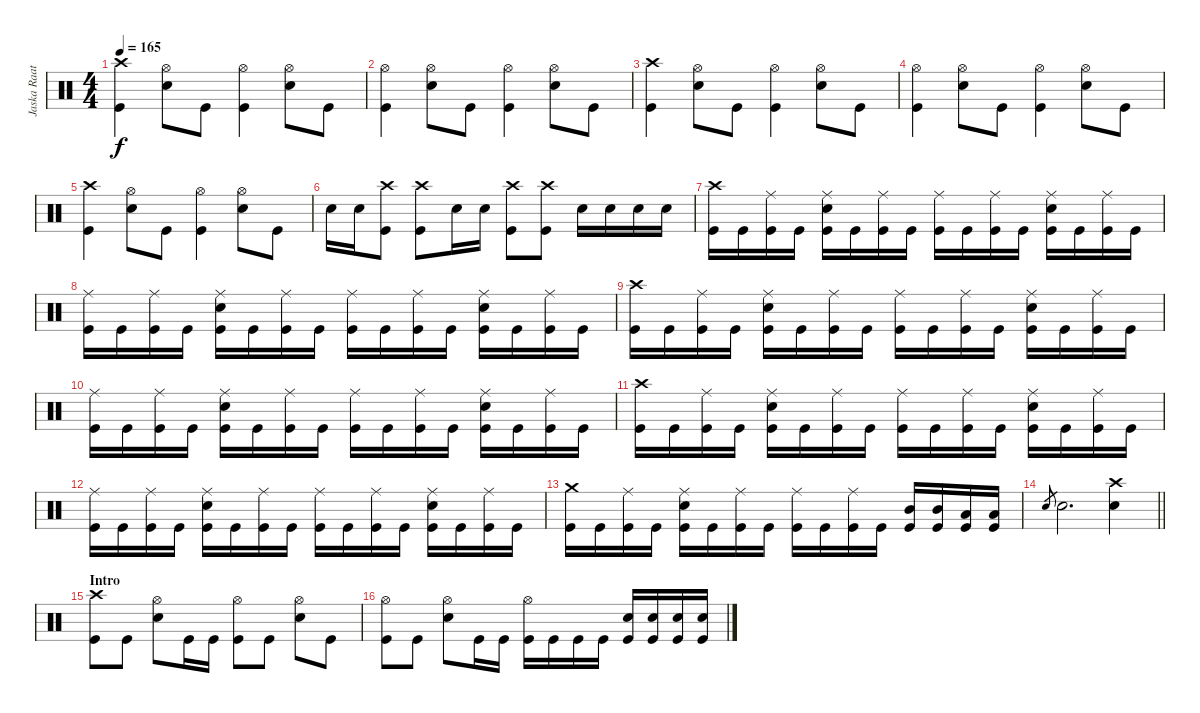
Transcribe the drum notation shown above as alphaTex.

\track ("Jaska Raatikainen" "Jaska Raat") {instrument percussion}
\staff {score}
\articulation defaults
\ts (4 4)
\tempo 165
\clef neutral
\ks c
("Crash high (hit)" "Kick (hit)").4{dy f} ("Hi-Hat (open)" "Electric Snare (hit)").8 "Kick (hit)".8 ("Hi-Hat (open)" "Kick (hit)").4 ("Hi-Hat (open)" "Electric Snare (hit)").8 "Kick (hit)".8 |
("Hi-Hat (open)" "Kick (hit)").4 ("Hi-Hat (open)" "Electric Snare (hit)").8 "Kick (hit)".8 ("Hi-Hat (open)" "Kick (hit)").4 ("Hi-Hat (open)" "Electric Snare (hit)").8 "Kick (hit)".8 |
("Crash high (hit)" "Kick (hit)").4 ("Hi-Hat (open)" "Electric Snare (hit)").8 "Kick (hit)".8 ("Hi-Hat (open)" "Kick (hit)").4 ("Hi-Hat (open)" "Electric Snare (hit)").8 "Kick (hit)".8 |
("Hi-Hat (open)" "Kick (hit)").4 ("Hi-Hat (open)" "Electric Snare (hit)").8 "Kick (hit)".8 ("Hi-Hat (open)" "Kick (hit)").4 ("Hi-Hat (open)" "Electric Snare (hit)").8 "Kick (hit)".8 |
("Crash high (hit)" "Kick (hit)").4 ("Hi-Hat (open)" "Electric Snare (hit)").8 "Kick (hit)".8 ("Hi-Hat (open)" "Kick (hit)").4 ("Hi-Hat (open)" "Electric Snare (hit)").8 "Kick (hit)".8 |
"Electric Snare (hit)".16 "Electric Snare (hit)".16 ("Crash high (hit)" "Kick (hit)").8 ("Crash high (hit)" "Kick (hit)").8 "Electric Snare (hit)".16 "Electric Snare (hit)".16 ("Crash high (hit)" "Kick (hit)").8 ("Crash high (hit)" "Kick (hit)").8 "Electric Snare (hit)".16 "Electric Snare (hit)".16 "Electric Snare (hit)".16 "Electric Snare (hit)".16 |
("Crash high (hit)" "Kick (hit)").16 "Kick (hit)".16 ("Ride (middle)" "Kick (hit)").16 "Kick (hit)".16 ("Ride (middle)" "Electric Snare (hit)" "Kick (hit)").16 "Kick (hit)".16 ("Ride (middle)" "Kick (hit)").16 "Kick (hit)".16 ("Ride (middle)" "Kick (hit)").16 "Kick (hit)".16 ("Ride (middle)" "Kick (hit)").16 "Kick (hit)".16 ("Ride (middle)" "Electric Snare (hit)" "Kick (hit)").16 "Kick (hit)".16 ("Ride (middle)" "Kick (hit)").16 "Kick (hit)".16 |
("Ride (middle)" "Kick (hit)").16 "Kick (hit)".16 ("Ride (middle)" "Kick (hit)").16 "Kick (hit)".16 ("Ride (middle)" "Electric Snare (hit)" "Kick (hit)").16 "Kick (hit)".16 ("Ride (middle)" "Kick (hit)").16 "Kick (hit)".16 ("Ride (middle)" "Kick (hit)").16 "Kick (hit)".16 ("Ride (middle)" "Kick (hit)").16 "Kick (hit)".16 ("Ride (middle)" "Electric Snare (hit)" "Kick (hit)").16 "Kick (hit)".16 ("Ride (middle)" "Kick (hit)").16 "Kick (hit)".16 |
("Crash high (hit)" "Kick (hit)").16 "Kick (hit)".16 ("Ride (middle)" "Kick (hit)").16 "Kick (hit)".16 ("Ride (middle)" "Electric Snare (hit)" "Kick (hit)").16 "Kick (hit)".16 ("Ride (middle)" "Kick (hit)").16 "Kick (hit)".16 ("Ride (middle)" "Kick (hit)").16 "Kick (hit)".16 ("Ride (middle)" "Kick (hit)").16 "Kick (hit)".16 ("Ride (middle)" "Electric Snare (hit)" "Kick (hit)").16 "Kick (hit)".16 ("Ride (middle)" "Kick (hit)").16 "Kick (hit)".16 |
("Ride (middle)" "Kick (hit)").16 "Kick (hit)".16 ("Ride (middle)" "Kick (hit)").16 "Kick (hit)".16 ("Ride (middle)" "Electric Snare (hit)" "Kick (hit)").16 "Kick (hit)".16 ("Ride (middle)" "Kick (hit)").16 "Kick (hit)".16 ("Ride (middle)" "Kick (hit)").16 "Kick (hit)".16 ("Ride (middle)" "Kick (hit)").16 "Kick (hit)".16 ("Ride (middle)" "Electric Snare (hit)" "Kick (hit)").16 "Kick (hit)".16 ("Ride (middle)" "Kick (hit)").16 "Kick (hit)".16 |
("Crash high (hit)" "Kick (hit)").16 "Kick (hit)".16 ("Ride (middle)" "Kick (hit)").16 "Kick (hit)".16 ("Ride (middle)" "Electric Snare (hit)" "Kick (hit)").16 "Kick (hit)".16 ("Ride (middle)" "Kick (hit)").16 "Kick (hit)".16 ("Ride (middle)" "Kick (hit)").16 "Kick (hit)".16 ("Ride (middle)" "Kick (hit)").16 "Kick (hit)".16 ("Ride (middle)" "Electric Snare (hit)" "Kick (hit)").16 "Kick (hit)".16 ("Ride (middle)" "Kick (hit)").16 "Kick (hit)".16 |
("Ride (middle)" "Kick (hit)").16 "Kick (hit)".16 ("Ride (middle)" "Kick (hit)").16 "Kick (hit)".16 ("Ride (middle)" "Electric Snare (hit)" "Kick (hit)").16 "Kick (hit)".16 ("Ride (middle)" "Kick (hit)").16 "Kick (hit)".16 ("Ride (middle)" "Kick (hit)").16 "Kick (hit)".16 ("Ride (middle)" "Kick (hit)").16 "Kick (hit)".16 ("Ride (middle)" "Electric Snare (hit)" "Kick (hit)").16 "Kick (hit)".16 ("Ride (middle)" "Kick (hit)").16 "Kick (hit)".16 |
("Crash medium (hit)" "Kick (hit)").16 "Kick (hit)".16 ("Ride (middle)" "Kick (hit)").16 "Kick (hit)".16 ("Ride (middle)" "Electric Snare (hit)" "Kick (hit)").16 "Kick (hit)".16 ("Ride (middle)" "Kick (hit)").16 "Kick (hit)".16 ("Ride (middle)" "Kick (hit)").16 "Kick (hit)".16 ("Ride (middle)" "Kick (hit)").16 "Kick (hit)".16 ("Mid Tom (hit)" "Kick (hit)").16 ("Mid Tom (hit)" "Kick (hit)").16 ("Low Tom (hit)" "Kick (hit)").16 ("Low Tom (hit)" "Kick (hit)").16 |
\barLineRight lightlight "Electric Snare (hit)".8{gr} "Electric Snare (hit)".2{d}
("Crash high (hit)" "Electric Snare (hit)").4 |
\section ("" "Intro")
("Crash high (hit)" "Kick (hit)").8 "Kick (hit)".8 ("Hi-Hat (open)" "Electric Snare (hit)").8 "Kick (hit)".16 "Kick (hit)".16 ("Hi-Hat (open)" "Kick (hit)").8 "Kick (hit)".8 ("Hi-Hat (open)" "Electric Snare (hit)").8 "Kick (hit)".8 |
("Hi-Hat (open)" "Kick (hit)").8 "Kick (hit)".8 ("Hi-Hat (open)" "Electric Snare (hit)").8 "Kick (hit)".16 "Kick (hit)".16 ("Hi-Hat (open)" "Kick (hit)").16 "Kick (hit)".16 "Kick (hit)".16 "Kick (hit)".16 ("Electric Snare (hit)" "Kick (hit)").16 ("Electric Snare (hit)" "Kick (hit)").16 ("Electric Snare (hit)" "Kick (hit)").16 ("Electric Snare (hit)" "Kick (hit)").16
